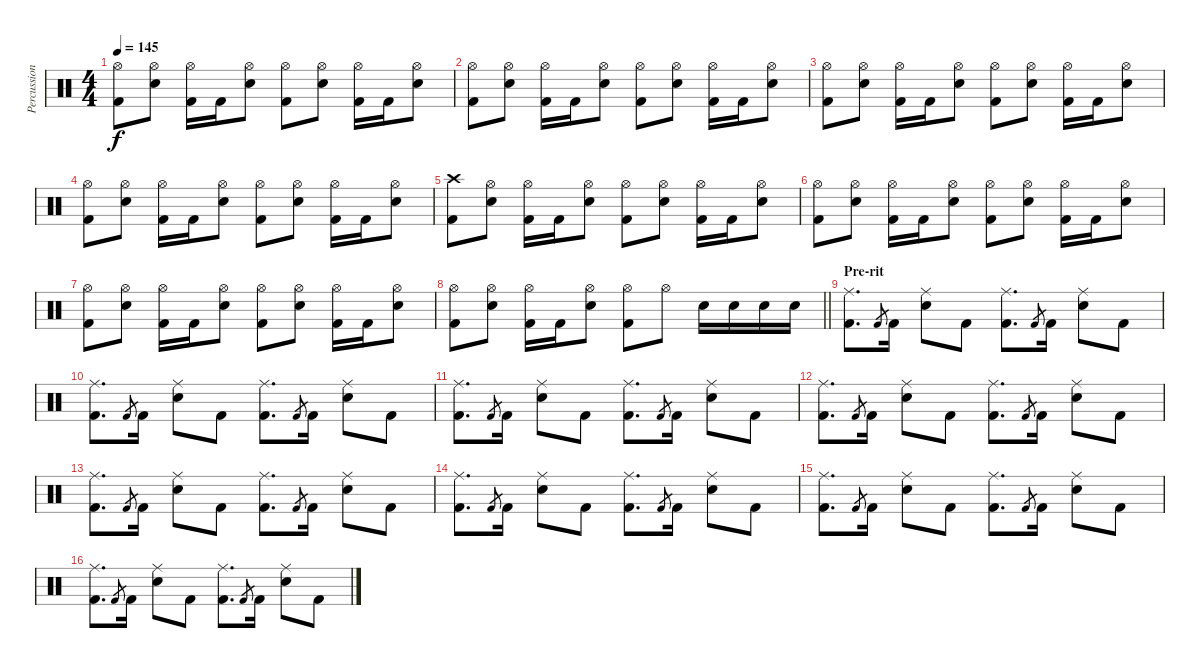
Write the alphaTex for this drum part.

\track ("Percussioni" "Percussion") {instrument percussion}
\staff {score}
\articulation defaults
\ts (4 4)
\tempo 145
\clef neutral
\ks c
("Hi-Hat (open)" "Kick (hit) 2").8{dy f} ("Hi-Hat (open)" "Snare (hit) 2").8 ("Hi-Hat (open)" "Kick (hit) 2").16 "Kick (hit) 2".16 ("Hi-Hat (open)" "Snare (hit) 2").8 ("Hi-Hat (open)" "Kick (hit) 2").8 ("Hi-Hat (open)" "Snare (hit) 2").8 ("Hi-Hat (open)" "Kick (hit) 2").16 "Kick (hit) 2".16 ("Hi-Hat (open)" "Snare (hit) 2").8 |
("Hi-Hat (open)" "Kick (hit) 2").8 ("Hi-Hat (open)" "Snare (hit) 2").8 ("Hi-Hat (open)" "Kick (hit) 2").16 "Kick (hit) 2".16 ("Hi-Hat (open)" "Snare (hit) 2").8 ("Hi-Hat (open)" "Kick (hit) 2").8 ("Hi-Hat (open)" "Snare (hit) 2").8 ("Hi-Hat (open)" "Kick (hit) 2").16 "Kick (hit) 2".16 ("Hi-Hat (open)" "Snare (hit) 2").8 |
("Hi-Hat (open)" "Kick (hit) 2").8 ("Hi-Hat (open)" "Snare (hit) 2").8 ("Hi-Hat (open)" "Kick (hit) 2").16 "Kick (hit) 2".16 ("Hi-Hat (open)" "Snare (hit) 2").8 ("Hi-Hat (open)" "Kick (hit) 2").8 ("Hi-Hat (open)" "Snare (hit) 2").8 ("Hi-Hat (open)" "Kick (hit) 2").16 "Kick (hit) 2".16 ("Hi-Hat (open)" "Snare (hit) 2").8 |
("Hi-Hat (open)" "Kick (hit) 2").8 ("Hi-Hat (open)" "Snare (hit) 2").8 ("Hi-Hat (open)" "Kick (hit) 2").16 "Kick (hit) 2".16 ("Hi-Hat (open)" "Snare (hit) 2").8 ("Hi-Hat (open)" "Kick (hit) 2").8 ("Hi-Hat (open)" "Snare (hit) 2").8 ("Hi-Hat (open)" "Kick (hit) 2").16 "Kick (hit) 2".16 ("Hi-Hat (open)" "Snare (hit) 2").8 |
("Crash high (hit)" "Kick (hit) 2").8 ("Hi-Hat (open)" "Snare (hit) 2").8 ("Hi-Hat (open)" "Kick (hit) 2").16 "Kick (hit) 2".16 ("Hi-Hat (open)" "Snare (hit) 2").8 ("Hi-Hat (open)" "Kick (hit) 2").8 ("Hi-Hat (open)" "Snare (hit) 2").8 ("Hi-Hat (open)" "Kick (hit) 2").16 "Kick (hit) 2".16 ("Hi-Hat (open)" "Snare (hit) 2").8 |
("Hi-Hat (open)" "Kick (hit) 2").8 ("Hi-Hat (open)" "Snare (hit) 2").8 ("Hi-Hat (open)" "Kick (hit) 2").16 "Kick (hit) 2".16 ("Hi-Hat (open)" "Snare (hit) 2").8 ("Hi-Hat (open)" "Kick (hit) 2").8 ("Hi-Hat (open)" "Snare (hit) 2").8 ("Hi-Hat (open)" "Kick (hit) 2").16 "Kick (hit) 2".16 ("Hi-Hat (open)" "Snare (hit) 2").8 |
("Hi-Hat (open)" "Kick (hit) 2").8 ("Hi-Hat (open)" "Snare (hit) 2").8 ("Hi-Hat (open)" "Kick (hit) 2").16 "Kick (hit) 2".16 ("Hi-Hat (open)" "Snare (hit) 2").8 ("Hi-Hat (open)" "Kick (hit) 2").8 ("Hi-Hat (open)" "Snare (hit) 2").8 ("Hi-Hat (open)" "Kick (hit) 2").16 "Kick (hit) 2".16 ("Hi-Hat (open)" "Snare (hit) 2").8 |
\barLineRight lightlight
("Hi-Hat (open)" "Kick (hit) 2").8 ("Hi-Hat (open)" "Snare (hit) 2").8 ("Hi-Hat (open)" "Kick (hit) 2").16 "Kick (hit) 2".16 ("Hi-Hat (open)" "Snare (hit) 2").8 ("Hi-Hat (open)" "Kick (hit) 2").8 "Hi-Hat (open)".8 "Snare (hit) 2".16 "Snare (hit) 2".16 "Snare (hit) 2".16 "Snare (hit) 2".16 |
\section ("" "Pre-rit")
("Ride (middle)" "Kick (hit) 2").8{d} "Kick (hit) 2".8{gr} "Kick (hit) 2".16 ("Ride (middle)" "Snare (hit) 2").8 "Kick (hit) 2".8 ("Ride (middle)" "Kick (hit) 2").8{d} "Kick (hit) 2".8{gr} "Kick (hit) 2".16 ("Ride (middle)" "Snare (hit) 2").8 "Kick (hit) 2".8 |
("Ride (middle)" "Kick (hit) 2").8{d} "Kick (hit) 2".8{gr} "Kick (hit) 2".16 ("Ride (middle)" "Snare (hit) 2").8 "Kick (hit) 2".8 ("Ride (middle)" "Kick (hit) 2").8{d} "Kick (hit) 2".8{gr} "Kick (hit) 2".16 ("Ride (middle)" "Snare (hit) 2").8 "Kick (hit) 2".8 |
("Ride (middle)" "Kick (hit) 2").8{d} "Kick (hit) 2".8{gr} "Kick (hit) 2".16 ("Ride (middle)" "Snare (hit) 2").8 "Kick (hit) 2".8 ("Ride (middle)" "Kick (hit) 2").8{d} "Kick (hit) 2".8{gr} "Kick (hit) 2".16 ("Ride (middle)" "Snare (hit) 2").8 "Kick (hit) 2".8 |
("Ride (middle)" "Kick (hit) 2").8{d} "Kick (hit) 2".8{gr} "Kick (hit) 2".16 ("Ride (middle)" "Snare (hit) 2").8 "Kick (hit) 2".8 ("Ride (middle)" "Kick (hit) 2").8{d} "Kick (hit) 2".8{gr} "Kick (hit) 2".16 ("Ride (middle)" "Snare (hit) 2").8 "Kick (hit) 2".8 |
("Ride (middle)" "Kick (hit) 2").8{d} "Kick (hit) 2".8{gr} "Kick (hit) 2".16 ("Ride (middle)" "Snare (hit) 2").8 "Kick (hit) 2".8 ("Ride (middle)" "Kick (hit) 2").8{d} "Kick (hit) 2".8{gr} "Kick (hit) 2".16 ("Ride (middle)" "Snare (hit) 2").8 "Kick (hit) 2".8 |
("Ride (middle)" "Kick (hit) 2").8{d} "Kick (hit) 2".8{gr} "Kick (hit) 2".16 ("Ride (middle)" "Snare (hit) 2").8 "Kick (hit) 2".8 ("Ride (middle)" "Kick (hit) 2").8{d} "Kick (hit) 2".8{gr} "Kick (hit) 2".16 ("Ride (middle)" "Snare (hit) 2").8 "Kick (hit) 2".8 |
("Ride (middle)" "Kick (hit) 2").8{d} "Kick (hit) 2".8{gr} "Kick (hit) 2".16 ("Ride (middle)" "Snare (hit) 2").8 "Kick (hit) 2".8 ("Ride (middle)" "Kick (hit) 2").8{d} "Kick (hit) 2".8{gr} "Kick (hit) 2".16 ("Ride (middle)" "Snare (hit) 2").8 "Kick (hit) 2".8 |
("Ride (middle)" "Kick (hit) 2").8{d} "Kick (hit) 2".8{gr} "Kick (hit) 2".16 ("Ride (middle)" "Snare (hit) 2").8 "Kick (hit) 2".8 ("Ride (middle)" "Kick (hit) 2").8{d} "Kick (hit) 2".8{gr} "Kick (hit) 2".16 ("Ride (middle)" "Snare (hit) 2").8 "Kick (hit) 2".8
